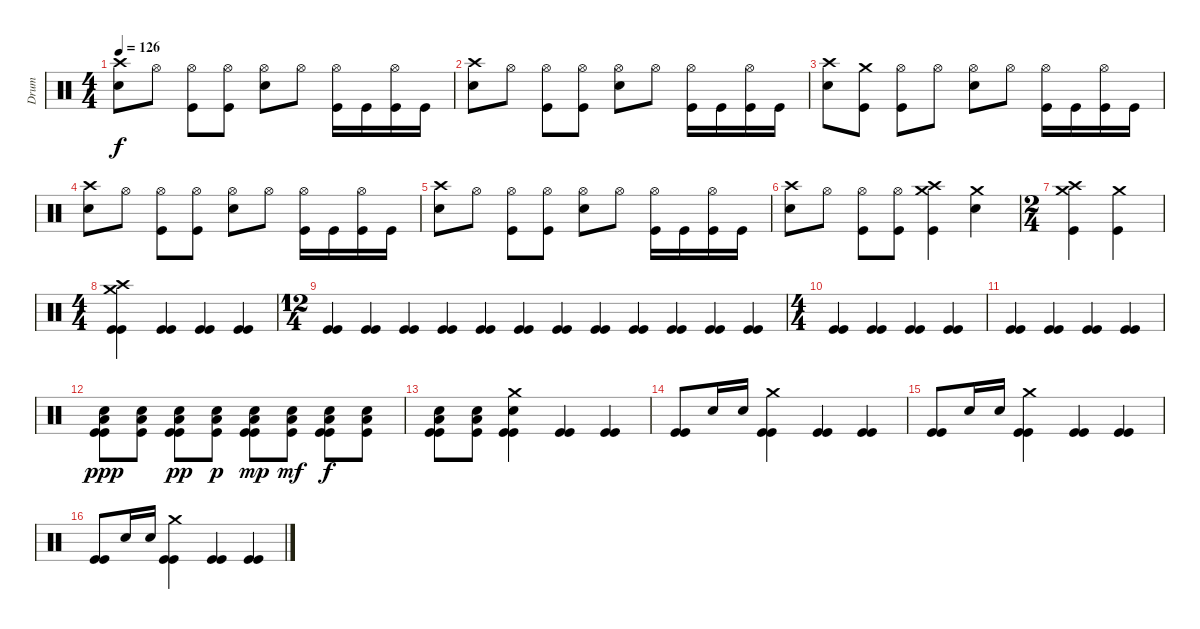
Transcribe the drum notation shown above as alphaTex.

\track ("Drum" "Drum") {instrument percussion}
\staff {score}
\articulation defaults
\ts (4 4)
\tempo 126
\clef neutral
\ks c
("Crash high (hit)" "Snare (hit) 2").8{dy f} "Hi-Hat (open)".8 ("Hi-Hat (open)" "Kick (hit)").8 ("Hi-Hat (open)" "Kick (hit)").8 ("Hi-Hat (open)" "Snare (hit) 2").8 "Hi-Hat (open)".8 ("Hi-Hat (open)" "Kick (hit)").16 "Kick (hit)".16 ("Hi-Hat (open)" "Kick (hit)").16 "Kick (hit)".16 |
("Crash high (hit)" "Snare (hit) 2").8 "Hi-Hat (open)".8 ("Hi-Hat (open)" "Kick (hit)").8 ("Hi-Hat (open)" "Kick (hit)").8 ("Hi-Hat (open)" "Snare (hit) 2").8 "Hi-Hat (open)".8 ("Hi-Hat (open)" "Kick (hit)").16 "Kick (hit)".16 ("Hi-Hat (open)" "Kick (hit)").16 "Kick (hit)".16 |
("Crash high (hit)" "Snare (hit) 2").8 ("Crash medium (hit)" "Kick (hit)").8 ("Hi-Hat (open)" "Kick (hit)").8 "Hi-Hat (open)".8 ("Hi-Hat (open)" "Snare (hit) 2").8 "Hi-Hat (open)".8 ("Hi-Hat (open)" "Kick (hit)").16 "Kick (hit)".16 ("Hi-Hat (open)" "Kick (hit)").16 "Kick (hit)".16 |
("Crash high (hit)" "Snare (hit) 2").8 "Hi-Hat (open)".8 ("Hi-Hat (open)" "Kick (hit)").8 ("Hi-Hat (open)" "Kick (hit)").8 ("Hi-Hat (open)" "Snare (hit) 2").8 "Hi-Hat (open)".8 ("Hi-Hat (open)" "Kick (hit)").16 "Kick (hit)".16 ("Hi-Hat (open)" "Kick (hit)").16 "Kick (hit)".16 |
("Crash high (hit)" "Snare (hit) 2").8 "Hi-Hat (open)".8 ("Hi-Hat (open)" "Kick (hit)").8 ("Hi-Hat (open)" "Kick (hit)").8 ("Hi-Hat (open)" "Snare (hit) 2").8 "Hi-Hat (open)".8 ("Hi-Hat (open)" "Kick (hit)").16 "Kick (hit)".16 ("Hi-Hat (open)" "Kick (hit)").16 "Kick (hit)".16 |
("Crash high (hit)" "Snare (hit) 2").8 "Hi-Hat (open)".8 ("Hi-Hat (open)" "Kick (hit)").8 ("Hi-Hat (open)" "Kick (hit)").8 ("Crash high (hit)" "Crash medium (hit)" "Kick (hit)").4 ("Crash medium (hit)" "Snare (hit) 2").4 |
\ts (2 4)
("Crash high (hit)" "Crash medium (hit)" "Kick (hit)").4 ("Crash medium (hit)" "Kick (hit)").4 |
\ts (4 4)
("Crash high (hit)" "Crash medium (hit)" "Kick (hit)" "Kick (hit)").4 ("Kick (hit)" "Kick (hit)").4 ("Kick (hit)" "Kick (hit)").4 ("Kick (hit)" "Kick (hit)").4 |
\ts (12 4)
("Kick (hit)" "Kick (hit)").4 ("Kick (hit)" "Kick (hit)").4 ("Kick (hit)" "Kick (hit)").4 ("Kick (hit)" "Kick (hit)").4 ("Kick (hit)" "Kick (hit)").4 ("Kick (hit)" "Kick (hit)").4 ("Kick (hit)" "Kick (hit)").4 ("Kick (hit)" "Kick (hit)").4 ("Kick (hit)" "Kick (hit)").4 ("Kick (hit)" "Kick (hit)").4 ("Kick (hit)" "Kick (hit)").4 ("Kick (hit)" "Kick (hit)").4 |
\ts (4 4)
("Kick (hit)" "Kick (hit)").4 ("Kick (hit)" "Kick (hit)").4 ("Kick (hit)" "Kick (hit)").4 ("Kick (hit)" "Kick (hit)").4 |
("Kick (hit)" "Kick (hit)").4 ("Kick (hit)" "Kick (hit)").4 ("Kick (hit)" "Kick (hit)").4 ("Kick (hit)" "Kick (hit)").4 |
("Snare (hit) 2" "Low Floor Tom (hit)" "Kick (hit)" "Kick (hit)").8{dy ppp} ("Snare (hit) 2" "Low Floor Tom (hit)" "Kick (hit)").8 ("Snare (hit) 2" "Low Floor Tom (hit)" "Kick (hit)" "Kick (hit)").8{dy pp} ("Snare (hit) 2" "Low Floor Tom (hit)" "Kick (hit)").8{dy p} ("Snare (hit) 2" "Low Floor Tom (hit)" "Kick (hit)" "Kick (hit)").8{dy mp} ("Snare (hit) 2" "Low Floor Tom (hit)" "Kick (hit)").8{dy mf} ("Snare (hit) 2" "Low Floor Tom (hit)" "Kick (hit)" "Kick (hit)").8{dy f} ("Snare (hit) 2" "Low Floor Tom (hit)" "Kick (hit)").8 |
("Snare (hit) 2" "Low Floor Tom (hit)" "Kick (hit)" "Kick (hit)").8 ("Snare (hit) 2" "Low Floor Tom (hit)" "Kick (hit)").8 ("Crash medium (hit)" "Snare (hit) 2" "Kick (hit)" "Kick (hit)").4 ("Kick (hit)" "Kick (hit)").4 ("Kick (hit)" "Kick (hit)").4 |
("Kick (hit)" "Kick (hit)").8 "Snare (hit) 2".16 "Snare (hit) 2".16 ("Crash medium (hit)" "Kick (hit)" "Kick (hit)").4 ("Kick (hit)" "Kick (hit)").4 ("Kick (hit)" "Kick (hit)").4 |
("Kick (hit)" "Kick (hit)").8 "Snare (hit) 2".16 "Snare (hit) 2".16 ("Crash medium (hit)" "Kick (hit)" "Kick (hit)").4 ("Kick (hit)" "Kick (hit)").4 ("Kick (hit)" "Kick (hit)").4 |
("Kick (hit)" "Kick (hit)").8 "Snare (hit) 2".16 "Snare (hit) 2".16 ("Crash medium (hit)" "Kick (hit)" "Kick (hit)").4 ("Kick (hit)" "Kick (hit)").4 ("Kick (hit)" "Kick (hit)").4
